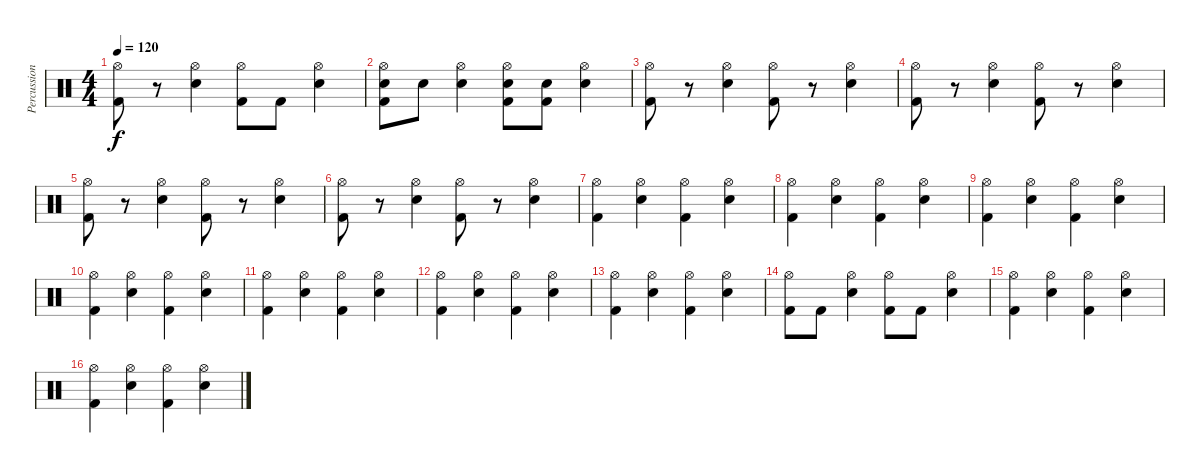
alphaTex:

\track ("Percussion" "Percussion") {instrument percussion}
\staff {score}
\articulation defaults
\ts (4 4)
\tempo 120
\clef neutral
\ks c
("Hi-Hat (open)" "Kick (hit) 2").8{dy f} r.8 ("Hi-Hat (open)" "Snare (hit) 2").4 ("Hi-Hat (open)" "Kick (hit) 2").8 "Kick (hit) 2".8 ("Hi-Hat (open)" "Snare (hit) 2").4 |
("Hi-Hat (open)" "Snare (hit) 2" "Kick (hit) 2").8 "Snare (hit) 2".8 ("Hi-Hat (open)" "Snare (hit) 2").4 ("Hi-Hat (open)" "Snare (hit) 2" "Kick (hit) 2").8 ("Snare (hit) 2" "Kick (hit) 2").8 ("Hi-Hat (open)" "Snare (hit) 2").4 |
("Hi-Hat (open)" "Kick (hit) 2").8 r.8 ("Hi-Hat (open)" "Snare (hit) 2").4 ("Hi-Hat (open)" "Kick (hit) 2").8 r.8 ("Hi-Hat (open)" "Snare (hit) 2").4 |
("Hi-Hat (open)" "Kick (hit) 2").8 r.8 ("Hi-Hat (open)" "Snare (hit) 2").4 ("Hi-Hat (open)" "Kick (hit) 2").8 r.8 ("Hi-Hat (open)" "Snare (hit) 2").4 |
("Hi-Hat (open)" "Kick (hit) 2").8 r.8 ("Hi-Hat (open)" "Snare (hit) 2").4 ("Hi-Hat (open)" "Kick (hit) 2").8 r.8 ("Hi-Hat (open)" "Snare (hit) 2").4 |
("Hi-Hat (open)" "Kick (hit) 2").8 r.8 ("Hi-Hat (open)" "Snare (hit) 2").4 ("Hi-Hat (open)" "Kick (hit) 2").8 r.8 ("Hi-Hat (open)" "Snare (hit) 2").4 |
("Hi-Hat (open)" "Kick (hit) 2").4 ("Snare (hit) 2" "Hi-Hat (open)").4 ("Hi-Hat (open)" "Kick (hit) 2").4 ("Snare (hit) 2" "Hi-Hat (open)").4 |
("Hi-Hat (open)" "Kick (hit) 2").4 ("Snare (hit) 2" "Hi-Hat (open)").4 ("Hi-Hat (open)" "Kick (hit) 2").4 ("Snare (hit) 2" "Hi-Hat (open)").4 |
("Hi-Hat (open)" "Kick (hit) 2").4 ("Snare (hit) 2" "Hi-Hat (open)").4 ("Hi-Hat (open)" "Kick (hit) 2").4 ("Snare (hit) 2" "Hi-Hat (open)").4 |
("Hi-Hat (open)" "Kick (hit) 2").4 ("Snare (hit) 2" "Hi-Hat (open)").4 ("Hi-Hat (open)" "Kick (hit) 2").4 ("Snare (hit) 2" "Hi-Hat (open)").4 |
("Hi-Hat (open)" "Kick (hit) 2").4 ("Snare (hit) 2" "Hi-Hat (open)").4 ("Hi-Hat (open)" "Kick (hit) 2").4 ("Snare (hit) 2" "Hi-Hat (open)").4 |
("Hi-Hat (open)" "Kick (hit) 2").4 ("Snare (hit) 2" "Hi-Hat (open)").4 ("Hi-Hat (open)" "Kick (hit) 2").4 ("Snare (hit) 2" "Hi-Hat (open)").4 |
("Hi-Hat (open)" "Kick (hit) 2").4 ("Snare (hit) 2" "Hi-Hat (open)").4 ("Hi-Hat (open)" "Kick (hit) 2").4 ("Snare (hit) 2" "Hi-Hat (open)").4 |
("Hi-Hat (open)" "Kick (hit) 2").8 "Kick (hit) 2".8 ("Hi-Hat (open)" "Snare (hit) 2").4 ("Hi-Hat (open)" "Kick (hit) 2").8 "Kick (hit) 2".8 ("Hi-Hat (open)" "Snare (hit) 2").4 |
("Hi-Hat (open)" "Kick (hit) 2").4 ("Snare (hit) 2" "Hi-Hat (open)").4 ("Hi-Hat (open)" "Kick (hit) 2").4 ("Snare (hit) 2" "Hi-Hat (open)").4 |
("Hi-Hat (open)" "Kick (hit) 2").4 ("Snare (hit) 2" "Hi-Hat (open)").4 ("Hi-Hat (open)" "Kick (hit) 2").4 ("Snare (hit) 2" "Hi-Hat (open)").4
